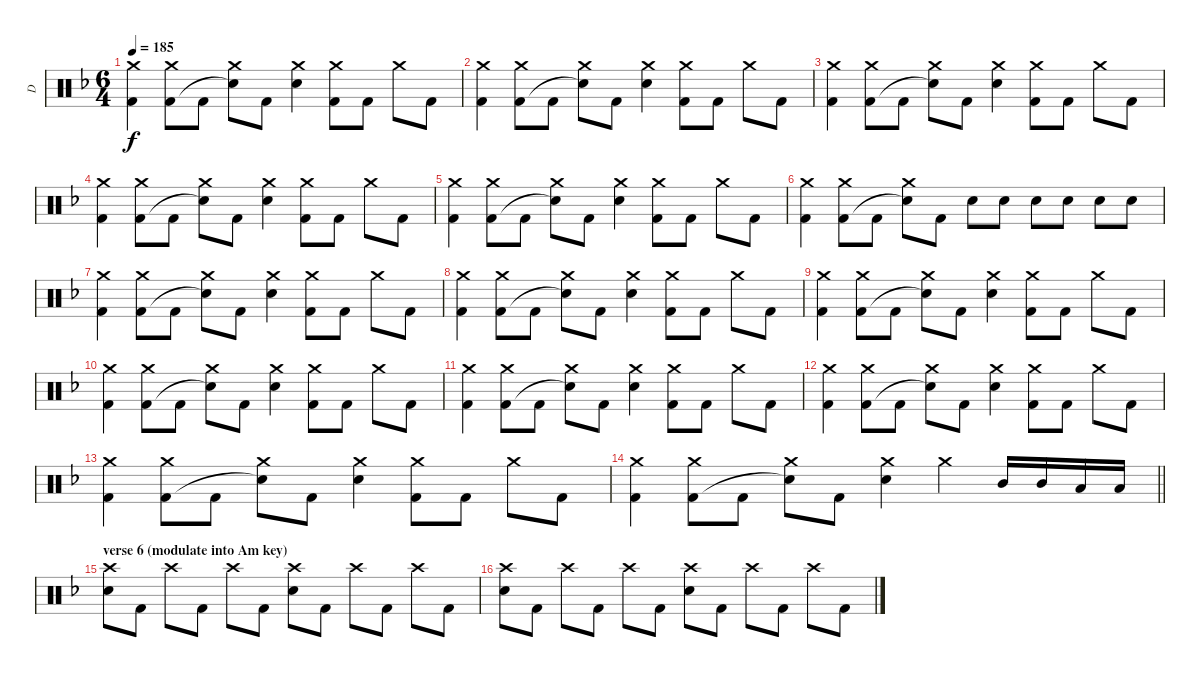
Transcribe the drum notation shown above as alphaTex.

\track ("D" "D") {instrument percussion}
\staff {score}
\articulation defaults
\ts (6 4)
\tempo 185
\clef neutral
\ks dminor
("Crash medium (hit)" "Kick (hit) 2").4{dy f} ("Crash medium (hit)" "Kick (hit) 2").8 "Kick (hit) 2".8 ("Crash medium (hit)" "Snare (hit)"{t}).8 "Kick (hit) 2".8 ("Crash medium (hit)" "Snare (hit) 2").4 ("Crash medium (hit)" "Kick (hit) 2").8 "Kick (hit) 2".8 "Crash medium (hit)".8 "Kick (hit) 2".8 |
("Crash medium (hit)" "Kick (hit) 2").4 ("Crash medium (hit)" "Kick (hit) 2").8 "Kick (hit) 2".8 ("Crash medium (hit)" "Snare (hit)"{t}).8 "Kick (hit) 2".8 ("Crash medium (hit)" "Snare (hit) 2").4 ("Crash medium (hit)" "Kick (hit) 2").8 "Kick (hit) 2".8 "Crash medium (hit)".8 "Kick (hit) 2".8 |
("Crash medium (hit)" "Kick (hit) 2").4 ("Crash medium (hit)" "Kick (hit) 2").8 "Kick (hit) 2".8 ("Crash medium (hit)" "Snare (hit)"{t}).8 "Kick (hit) 2".8 ("Crash medium (hit)" "Snare (hit) 2").4 ("Crash medium (hit)" "Kick (hit) 2").8 "Kick (hit) 2".8 "Crash medium (hit)".8 "Kick (hit) 2".8 |
("Crash medium (hit)" "Kick (hit) 2").4 ("Crash medium (hit)" "Kick (hit) 2").8 "Kick (hit) 2".8 ("Crash medium (hit)" "Snare (hit)"{t}).8 "Kick (hit) 2".8 ("Crash medium (hit)" "Snare (hit) 2").4 ("Crash medium (hit)" "Kick (hit) 2").8 "Kick (hit) 2".8 "Crash medium (hit)".8 "Kick (hit) 2".8 |
("Crash medium (hit)" "Kick (hit) 2").4 ("Crash medium (hit)" "Kick (hit) 2").8 "Kick (hit) 2".8 ("Crash medium (hit)" "Snare (hit)"{t}).8 "Kick (hit) 2".8 ("Crash medium (hit)" "Snare (hit) 2").4 ("Crash medium (hit)" "Kick (hit) 2").8 "Kick (hit) 2".8 "Crash medium (hit)".8 "Kick (hit) 2".8 |
("Crash medium (hit)" "Kick (hit) 2").4 ("Crash medium (hit)" "Kick (hit) 2").8 "Kick (hit) 2".8 ("Crash medium (hit)" "Snare (hit)"{t}).8 "Kick (hit) 2".8 "Snare (hit) 2".8 "Snare (hit) 2".8 "Snare (hit) 2".8 "Snare (hit) 2".8 "Snare (hit) 2".8 "Snare (hit) 2".8 |
("Crash medium (hit)" "Kick (hit) 2").4 ("Crash medium (hit)" "Kick (hit) 2").8 "Kick (hit) 2".8 ("Crash medium (hit)" "Snare (hit)"{t}).8 "Kick (hit) 2".8 ("Crash medium (hit)" "Snare (hit) 2").4 ("Crash medium (hit)" "Kick (hit) 2").8 "Kick (hit) 2".8 "Crash medium (hit)".8 "Kick (hit) 2".8 |
("Crash medium (hit)" "Kick (hit) 2").4 ("Crash medium (hit)" "Kick (hit) 2").8 "Kick (hit) 2".8 ("Crash medium (hit)" "Snare (hit)"{t}).8 "Kick (hit) 2".8 ("Crash medium (hit)" "Snare (hit) 2").4 ("Crash medium (hit)" "Kick (hit) 2").8 "Kick (hit) 2".8 "Crash medium (hit)".8 "Kick (hit) 2".8 |
("Crash medium (hit)" "Kick (hit) 2").4 ("Crash medium (hit)" "Kick (hit) 2").8 "Kick (hit) 2".8 ("Crash medium (hit)" "Snare (hit)"{t}).8 "Kick (hit) 2".8 ("Crash medium (hit)" "Snare (hit) 2").4 ("Crash medium (hit)" "Kick (hit) 2").8 "Kick (hit) 2".8 "Crash medium (hit)".8 "Kick (hit) 2".8 |
("Crash medium (hit)" "Kick (hit) 2").4 ("Crash medium (hit)" "Kick (hit) 2").8 "Kick (hit) 2".8 ("Crash medium (hit)" "Snare (hit)"{t}).8 "Kick (hit) 2".8 ("Crash medium (hit)" "Snare (hit) 2").4 ("Crash medium (hit)" "Kick (hit) 2").8 "Kick (hit) 2".8 "Crash medium (hit)".8 "Kick (hit) 2".8 |
("Crash medium (hit)" "Kick (hit) 2").4 ("Crash medium (hit)" "Kick (hit) 2").8 "Kick (hit) 2".8 ("Crash medium (hit)" "Snare (hit)"{t}).8 "Kick (hit) 2".8 ("Crash medium (hit)" "Snare (hit) 2").4 ("Crash medium (hit)" "Kick (hit) 2").8 "Kick (hit) 2".8 "Crash medium (hit)".8 "Kick (hit) 2".8 |
("Crash medium (hit)" "Kick (hit) 2").4 ("Crash medium (hit)" "Kick (hit) 2").8 "Kick (hit) 2".8 ("Crash medium (hit)" "Snare (hit)"{t}).8 "Kick (hit) 2".8 ("Crash medium (hit)" "Snare (hit) 2").4 ("Crash medium (hit)" "Kick (hit) 2").8 "Kick (hit) 2".8 "Crash medium (hit)".8 "Kick (hit) 2".8 |
("Crash medium (hit)" "Kick (hit) 2").4 ("Crash medium (hit)" "Kick (hit) 2").8 "Kick (hit) 2".8 ("Crash medium (hit)" "Snare (hit)"{t}).8 "Kick (hit) 2".8 ("Crash medium (hit)" "Snare (hit) 2").4 ("Crash medium (hit)" "Kick (hit) 2").8 "Kick (hit) 2".8 "Crash medium (hit)".8 "Kick (hit) 2".8 |
\barLineRight lightlight
("Crash medium (hit)" "Kick (hit) 2").4 ("Crash medium (hit)" "Kick (hit) 2").8 "Kick (hit) 2".8 ("Crash medium (hit)" "Snare (hit)"{t}).8 "Kick (hit) 2".8 ("Crash medium (hit)" "Snare (hit) 2").4 "Crash medium (hit)".4 "Mid Tom (hit)".16 "Mid Tom (hit)".16 "Low Tom (hit)".16 "Low Tom (hit)".16 |
\section ("" "verse 6 (modulate into Am key)")
("Crash high (hit)" "Snare (hit) 2").8 "Kick (hit) 2".8 "Crash high (hit)".8 "Kick (hit) 2".8 "Crash high (hit)".8 "Kick (hit) 2".8 ("Crash high (hit)" "Snare (hit) 2").8 "Kick (hit) 2".8 "Crash high (hit)".8 "Kick (hit) 2".8 "Crash high (hit)".8 "Kick (hit) 2".8 |
("Crash high (hit)" "Snare (hit) 2").8 "Kick (hit) 2".8 "Crash high (hit)".8 "Kick (hit) 2".8 "Crash high (hit)".8 "Kick (hit) 2".8 ("Crash high (hit)" "Snare (hit) 2").8 "Kick (hit) 2".8 "Crash high (hit)".8 "Kick (hit) 2".8 "Crash high (hit)".8 "Kick (hit) 2".8
